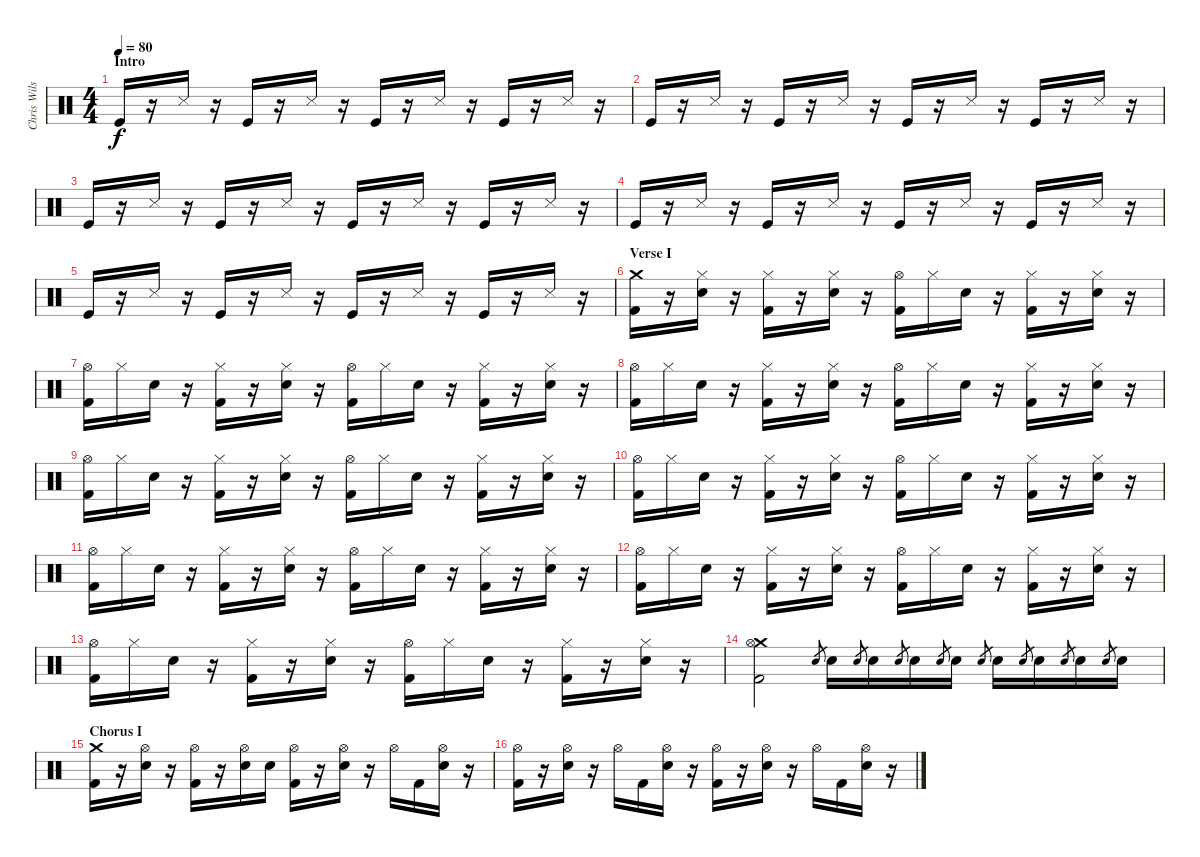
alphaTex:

\track ("Chris Wilson - Drums" "Chris Wils") {instrument percussion}
\staff {score}
\articulation defaults
\ts (4 4)
\section ("" "Intro")
\tempo 80
\clef neutral
\ks c "Kick (hit)".16{dy f}
r.16 "Snare (side stick) 3".16 r.16 "Kick (hit)".16 r.16 "Snare (side stick) 3".16 r.16 "Kick (hit)".16 r.16 "Snare (side stick) 3".16 r.16 "Kick (hit)".16 r.16 "Snare (side stick) 3".16 r.16 |
"Kick (hit)".16 r.16 "Snare (side stick) 3".16 r.16 "Kick (hit)".16 r.16 "Snare (side stick) 3".16 r.16 "Kick (hit)".16 r.16 "Snare (side stick) 3".16 r.16 "Kick (hit)".16 r.16 "Snare (side stick) 3".16 r.16 |
"Kick (hit)".16 r.16 "Snare (side stick) 3".16 r.16 "Kick (hit)".16 r.16 "Snare (side stick) 3".16 r.16 "Kick (hit)".16 r.16 "Snare (side stick) 3".16 r.16 "Kick (hit)".16 r.16 "Snare (side stick) 3".16 r.16 |
"Kick (hit)".16 r.16 "Snare (side stick) 3".16 r.16 "Kick (hit)".16 r.16 "Snare (side stick) 3".16 r.16 "Kick (hit)".16 r.16 "Snare (side stick) 3".16 r.16 "Kick (hit)".16 r.16 "Snare (side stick) 3".16 r.16 |
"Kick (hit)".16 r.16 "Snare (side stick) 3".16 r.16 "Kick (hit)".16 r.16 "Snare (side stick) 3".16 r.16 "Kick (hit)".16 r.16 "Snare (side stick) 3".16 r.16 "Kick (hit)".16 r.16 "Snare (side stick) 3".16 r.16 |
\section ("" "Verse I")
("Crash medium (hit)" "Kick (hit) 2").16 r.16 ("Hi-Hat (closed)" "Snare (hit) 2").16 r.16 ("Hi-Hat (closed)" "Kick (hit) 2").16 r.16 ("Hi-Hat (closed)" "Snare (hit) 2").16 r.16 ("Hi-Hat (open)" "Kick (hit) 2").16 "Hi-Hat (closed)".16 "Snare (hit) 2".16 r.16 ("Hi-Hat (closed)" "Kick (hit) 2").16 r.16 ("Hi-Hat (closed)" "Snare (hit) 2").16 r.16 |
("Hi-Hat (open)" "Kick (hit) 2").16 "Hi-Hat (closed)".16 "Snare (hit) 2".16 r.16 ("Hi-Hat (closed)" "Kick (hit) 2").16 r.16 ("Hi-Hat (closed)" "Snare (hit) 2").16 r.16 ("Hi-Hat (open)" "Kick (hit) 2").16 "Hi-Hat (closed)".16 "Snare (hit) 2".16 r.16 ("Hi-Hat (closed)" "Kick (hit) 2").16 r.16 ("Hi-Hat (closed)" "Snare (hit) 2").16 r.16 |
("Hi-Hat (open)" "Kick (hit) 2").16 "Hi-Hat (closed)".16 "Snare (hit) 2".16 r.16 ("Hi-Hat (closed)" "Kick (hit) 2").16 r.16 ("Hi-Hat (closed)" "Snare (hit) 2").16 r.16 ("Hi-Hat (open)" "Kick (hit) 2").16 "Hi-Hat (closed)".16 "Snare (hit) 2".16 r.16 ("Hi-Hat (closed)" "Kick (hit) 2").16 r.16 ("Hi-Hat (closed)" "Snare (hit) 2").16 r.16 |
("Hi-Hat (open)" "Kick (hit) 2").16 "Hi-Hat (closed)".16 "Snare (hit) 2".16 r.16 ("Hi-Hat (closed)" "Kick (hit) 2").16 r.16 ("Hi-Hat (closed)" "Snare (hit) 2").16 r.16 ("Hi-Hat (open)" "Kick (hit) 2").16 "Hi-Hat (closed)".16 "Snare (hit) 2".16 r.16 ("Hi-Hat (closed)" "Kick (hit) 2").16 r.16 ("Hi-Hat (closed)" "Snare (hit) 2").16 r.16 |
("Hi-Hat (open)" "Kick (hit) 2").16 "Hi-Hat (closed)".16 "Snare (hit) 2".16 r.16 ("Hi-Hat (closed)" "Kick (hit) 2").16 r.16 ("Hi-Hat (closed)" "Snare (hit) 2").16 r.16 ("Hi-Hat (open)" "Kick (hit) 2").16 "Hi-Hat (closed)".16 "Snare (hit) 2".16 r.16 ("Hi-Hat (closed)" "Kick (hit) 2").16 r.16 ("Hi-Hat (closed)" "Snare (hit) 2").16 r.16 |
("Hi-Hat (open)" "Kick (hit) 2").16 "Hi-Hat (closed)".16 "Snare (hit) 2".16 r.16 ("Hi-Hat (closed)" "Kick (hit) 2").16 r.16 ("Hi-Hat (closed)" "Snare (hit) 2").16 r.16 ("Hi-Hat (open)" "Kick (hit) 2").16 "Hi-Hat (closed)".16 "Snare (hit) 2".16 r.16 ("Hi-Hat (closed)" "Kick (hit) 2").16 r.16 ("Hi-Hat (closed)" "Snare (hit) 2").16 r.16 |
("Hi-Hat (open)" "Kick (hit) 2").16 "Hi-Hat (closed)".16 "Snare (hit) 2".16 r.16 ("Hi-Hat (closed)" "Kick (hit) 2").16 r.16 ("Hi-Hat (closed)" "Snare (hit) 2").16 r.16 ("Hi-Hat (open)" "Kick (hit) 2").16 "Hi-Hat (closed)".16 "Snare (hit) 2".16 r.16 ("Hi-Hat (closed)" "Kick (hit) 2").16 r.16 ("Hi-Hat (closed)" "Snare (hit) 2").16 r.16 |
("Hi-Hat (open)" "Kick (hit) 2").16 "Hi-Hat (closed)".16 "Snare (hit) 2".16 r.16 ("Hi-Hat (closed)" "Kick (hit) 2").16 r.16 ("Hi-Hat (closed)" "Snare (hit) 2").16 r.16 ("Hi-Hat (open)" "Kick (hit) 2").16 "Hi-Hat (closed)".16 "Snare (hit) 2".16 r.16 ("Hi-Hat (closed)" "Kick (hit) 2").16 r.16 ("Hi-Hat (closed)" "Snare (hit) 2").16 r.16{volume 6} |
("Crash medium (hit)" "Hi-Hat (open)" "Kick (hit) 2").2{volume 15} "Snare (hit) 2".8{gr} "Snare (hit) 2".16 "Snare (hit) 2".8{gr} "Snare (hit) 2".16 "Snare (hit) 2".8{gr} "Snare (hit) 2".16 "Snare (hit) 2".8{gr} "Snare (hit) 2".16 "Snare (hit) 2".8{gr} "Snare (hit) 2".16 "Snare (hit) 2".8{gr} "Snare (hit) 2".16 "Snare (hit) 2".8{gr} "Snare (hit) 2".16 "Snare (hit) 2".8{gr} "Snare (hit) 2".16 |
\section ("" "Chorus I")
("Crash medium (hit)" "Kick (hit) 2").16 r.16 ("Hi-Hat (open)" "Snare (hit) 2").16 r.16 ("Hi-Hat (open)" "Kick (hit) 2").16 r.16 ("Hi-Hat (open)" "Snare (hit) 2").16 "Snare (hit) 2".16 ("Hi-Hat (open)" "Kick (hit) 2").16 r.16 ("Hi-Hat (open)" "Snare (hit) 2").16 r.16 "Hi-Hat (open)".16 "Kick (hit) 2".16 ("Hi-Hat (open)" "Snare (hit) 2").16 r.16 |
("Hi-Hat (open)" "Kick (hit) 2").16 r.16 ("Hi-Hat (open)" "Snare (hit) 2").16 r.16 "Hi-Hat (open)".16 "Kick (hit) 2".16 ("Hi-Hat (open)" "Snare (hit) 2").16 r.16 ("Hi-Hat (open)" "Kick (hit) 2").16 r.16 ("Hi-Hat (open)" "Snare (hit) 2").16 r.16 "Hi-Hat (open)".16 "Kick (hit) 2".16 ("Hi-Hat (open)" "Snare (hit) 2").16 r.16
